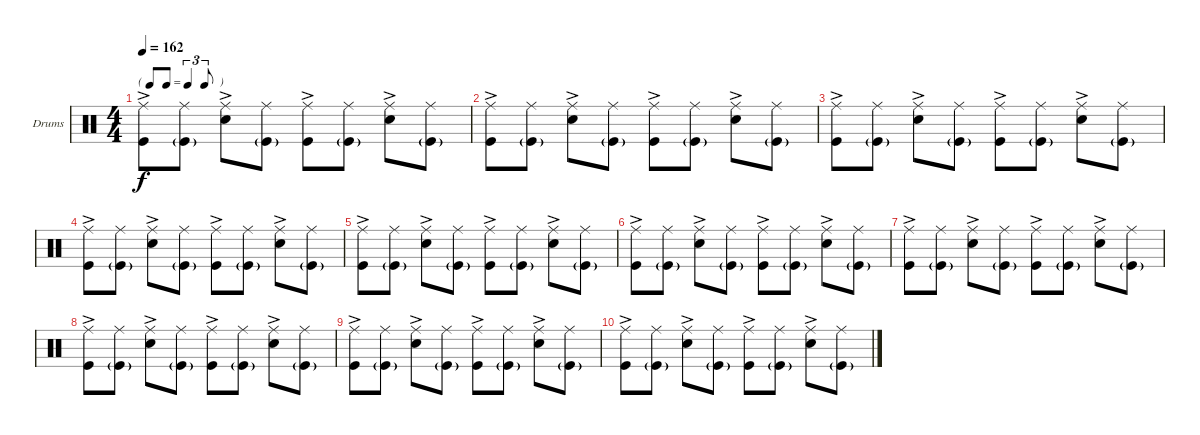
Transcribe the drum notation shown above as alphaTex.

\bracketExtendMode groupsimilarinstruments
\firstSystemTrackNameOrientation horizontal
\otherSystemsTrackNameOrientation horizontal
\track ("Drumkit" "Drums") {instrument percussion}
\staff {score}
\articulation defaults
\ts (4 4)
\tf triplet8th
\tempo 162
\clef neutral
\ks c
("Kick (hit)" "Ride (middle)"{ac}).8{dy f} ("Kick (hit)"{g} "Ride (middle)").8 ("Snare (hit) 2" "Ride (middle)"{ac}).8 ("Kick (hit)"{g} "Ride (middle)").8 ("Kick (hit)" "Ride (middle)"{ac}).8 ("Kick (hit)"{g} "Ride (middle)").8 ("Snare (hit) 2" "Ride (middle)"{ac}).8 ("Kick (hit)"{g} "Ride (middle)").8 |
("Kick (hit)" "Ride (middle)"{ac}).8 ("Kick (hit)"{g} "Ride (middle)").8 ("Snare (hit) 2" "Ride (middle)"{ac}).8 ("Kick (hit)"{g} "Ride (middle)").8 ("Kick (hit)" "Ride (middle)"{ac}).8 ("Kick (hit)"{g} "Ride (middle)").8 ("Snare (hit) 2" "Ride (middle)"{ac}).8 ("Kick (hit)"{g} "Ride (middle)").8 |
("Kick (hit)" "Ride (middle)"{ac}).8 ("Kick (hit)"{g} "Ride (middle)").8 ("Snare (hit) 2" "Ride (middle)"{ac}).8 ("Kick (hit)"{g} "Ride (middle)").8 ("Kick (hit)" "Ride (middle)"{ac}).8 ("Kick (hit)"{g} "Ride (middle)").8 ("Snare (hit) 2" "Ride (middle)"{ac}).8 ("Kick (hit)"{g} "Ride (middle)").8 |
("Kick (hit)" "Ride (middle)"{ac}).8 ("Kick (hit)"{g} "Ride (middle)").8 ("Snare (hit) 2" "Ride (middle)"{ac}).8 ("Kick (hit)"{g} "Ride (middle)").8 ("Kick (hit)" "Ride (middle)"{ac}).8 ("Kick (hit)"{g} "Ride (middle)").8 ("Snare (hit) 2" "Ride (middle)"{ac}).8 ("Kick (hit)"{g} "Ride (middle)").8 |
("Kick (hit)" "Ride (middle)"{ac}).8 ("Kick (hit)"{g} "Ride (middle)").8 ("Snare (hit) 2" "Ride (middle)"{ac}).8 ("Kick (hit)"{g} "Ride (middle)").8 ("Kick (hit)" "Ride (middle)"{ac}).8 ("Kick (hit)"{g} "Ride (middle)").8 ("Snare (hit) 2" "Ride (middle)"{ac}).8 ("Kick (hit)"{g} "Ride (middle)").8 |
("Kick (hit)" "Ride (middle)"{ac}).8 ("Kick (hit)"{g} "Ride (middle)").8 ("Snare (hit) 2" "Ride (middle)"{ac}).8 ("Kick (hit)"{g} "Ride (middle)").8 ("Kick (hit)" "Ride (middle)"{ac}).8 ("Kick (hit)"{g} "Ride (middle)").8 ("Snare (hit) 2" "Ride (middle)"{ac}).8 ("Kick (hit)"{g} "Ride (middle)").8 |
("Kick (hit)" "Ride (middle)"{ac}).8 ("Kick (hit)"{g} "Ride (middle)").8 ("Snare (hit) 2" "Ride (middle)"{ac}).8 ("Kick (hit)"{g} "Ride (middle)").8 ("Kick (hit)" "Ride (middle)"{ac}).8 ("Kick (hit)"{g} "Ride (middle)").8 ("Snare (hit) 2" "Ride (middle)"{ac}).8 ("Kick (hit)"{g} "Ride (middle)").8 |
("Kick (hit)" "Ride (middle)"{ac}).8 ("Kick (hit)"{g} "Ride (middle)").8 ("Snare (hit) 2" "Ride (middle)"{ac}).8 ("Kick (hit)"{g} "Ride (middle)").8 ("Kick (hit)" "Ride (middle)"{ac}).8 ("Kick (hit)"{g} "Ride (middle)").8 ("Snare (hit) 2" "Ride (middle)"{ac}).8 ("Kick (hit)"{g} "Ride (middle)").8 |
("Kick (hit)" "Ride (middle)"{ac}).8 ("Kick (hit)"{g} "Ride (middle)").8 ("Snare (hit) 2" "Ride (middle)"{ac}).8 ("Kick (hit)"{g} "Ride (middle)").8 ("Kick (hit)" "Ride (middle)"{ac}).8 ("Kick (hit)"{g} "Ride (middle)").8 ("Snare (hit) 2" "Ride (middle)"{ac}).8 ("Kick (hit)"{g} "Ride (middle)").8 |
("Kick (hit)" "Ride (middle)"{ac}).8 ("Kick (hit)"{g} "Ride (middle)").8 ("Snare (hit) 2" "Ride (middle)"{ac}).8 ("Kick (hit)"{g} "Ride (middle)").8 ("Kick (hit)" "Ride (middle)"{ac}).8 ("Kick (hit)"{g} "Ride (middle)").8 ("Snare (hit) 2" "Ride (middle)"{ac}).8 ("Kick (hit)"{g} "Ride (middle)").8
